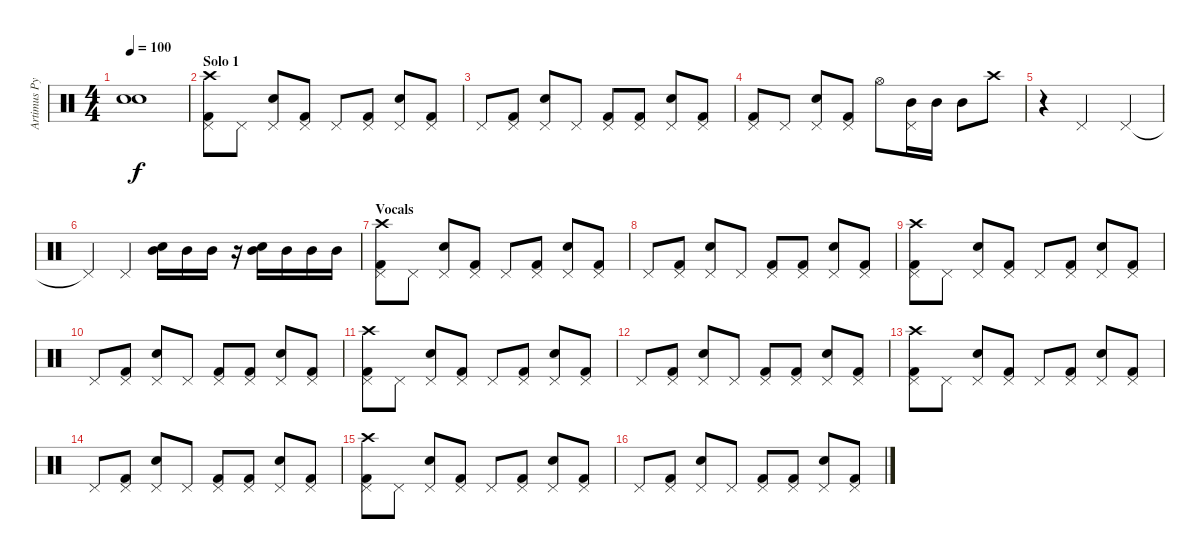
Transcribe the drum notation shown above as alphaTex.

\track ("Artimus Pyle " "Artimus Py") {instrument percussion}
\staff {score}
\articulation defaults
\ts (4 4)
\tempo 100
\clef neutral
\ks c
("Snare (hit)"{t} "Snare (hit)"{t}).1{dy f} |
\section ("" "Solo 1")
("Crash high (hit)" "Pedal Hi-Hat (hit)" "Kick (hit) 2").8 "Pedal Hi-Hat (hit)".8 ("Pedal Hi-Hat (hit)" "Electric Snare (hit)").8 ("Pedal Hi-Hat (hit)" "Kick (hit) 2").8 "Pedal Hi-Hat (hit)".8 ("Pedal Hi-Hat (hit)" "Kick (hit) 2").8 ("Pedal Hi-Hat (hit)" "Electric Snare (hit)").8 ("Pedal Hi-Hat (hit)" "Kick (hit) 2").8 |
"Pedal Hi-Hat (hit)".8 ("Pedal Hi-Hat (hit)" "Kick (hit) 2").8 ("Pedal Hi-Hat (hit)" "Electric Snare (hit)").8 "Pedal Hi-Hat (hit)".8 ("Pedal Hi-Hat (hit)" "Kick (hit) 2").8 ("Pedal Hi-Hat (hit)" "Kick (hit) 2").8 ("Pedal Hi-Hat (hit)" "Electric Snare (hit)").8 ("Pedal Hi-Hat (hit)" "Kick (hit) 2").8 |
("Pedal Hi-Hat (hit)" "Kick (hit) 2").8 "Pedal Hi-Hat (hit)".8 ("Pedal Hi-Hat (hit)" "Electric Snare (hit)").8 ("Pedal Hi-Hat (hit)" "Kick (hit) 2").8 "Hi-Hat (open)".8 ("Pedal Hi-Hat (hit)" "Mid Tom (hit)").16 "Mid Tom (hit)".16 "Mid Tom (hit)".8 "Crash high (hit)".8 |
r.4 "Pedal Hi-Hat (hit)".2 "Pedal Hi-Hat (hit)".4 |
"Pedal Hi-Hat (hit)"{t}.4 "Pedal Hi-Hat (hit)".4 ("Electric Snare (hit)" "Mid Tom (hit)").16 "Mid Tom (hit)".16 "Mid Tom (hit)".16 r.16 ("Electric Snare (hit)" "Mid Tom (hit)").16 "Mid Tom (hit)".16 "Mid Tom (hit)".16 "Mid Tom (hit)".16 |
\section ("" "Vocals")
("Crash high (hit)" "Pedal Hi-Hat (hit)" "Kick (hit) 2").8 "Pedal Hi-Hat (hit)".8 ("Pedal Hi-Hat (hit)" "Electric Snare (hit)").8 ("Pedal Hi-Hat (hit)" "Kick (hit) 2").8 "Pedal Hi-Hat (hit)".8 ("Pedal Hi-Hat (hit)" "Kick (hit) 2").8 ("Pedal Hi-Hat (hit)" "Electric Snare (hit)").8 ("Pedal Hi-Hat (hit)" "Kick (hit) 2").8 |
"Pedal Hi-Hat (hit)".8 ("Pedal Hi-Hat (hit)" "Kick (hit) 2").8 ("Pedal Hi-Hat (hit)" "Electric Snare (hit)").8 "Pedal Hi-Hat (hit)".8 ("Pedal Hi-Hat (hit)" "Kick (hit) 2").8 ("Pedal Hi-Hat (hit)" "Kick (hit) 2").8 ("Pedal Hi-Hat (hit)" "Electric Snare (hit)").8 ("Pedal Hi-Hat (hit)" "Kick (hit) 2").8 |
("Crash high (hit)" "Pedal Hi-Hat (hit)" "Kick (hit) 2").8 "Pedal Hi-Hat (hit)".8 ("Pedal Hi-Hat (hit)" "Electric Snare (hit)").8 ("Pedal Hi-Hat (hit)" "Kick (hit) 2").8 "Pedal Hi-Hat (hit)".8 ("Pedal Hi-Hat (hit)" "Kick (hit) 2").8 ("Pedal Hi-Hat (hit)" "Electric Snare (hit)").8 ("Pedal Hi-Hat (hit)" "Kick (hit) 2").8 |
"Pedal Hi-Hat (hit)".8 ("Pedal Hi-Hat (hit)" "Kick (hit) 2").8 ("Pedal Hi-Hat (hit)" "Electric Snare (hit)").8 "Pedal Hi-Hat (hit)".8 ("Pedal Hi-Hat (hit)" "Kick (hit) 2").8 ("Pedal Hi-Hat (hit)" "Kick (hit) 2").8 ("Pedal Hi-Hat (hit)" "Electric Snare (hit)").8 ("Pedal Hi-Hat (hit)" "Kick (hit) 2").8 |
("Crash high (hit)" "Pedal Hi-Hat (hit)" "Kick (hit) 2").8 "Pedal Hi-Hat (hit)".8 ("Pedal Hi-Hat (hit)" "Electric Snare (hit)").8 ("Pedal Hi-Hat (hit)" "Kick (hit) 2").8 "Pedal Hi-Hat (hit)".8 ("Pedal Hi-Hat (hit)" "Kick (hit) 2").8 ("Pedal Hi-Hat (hit)" "Electric Snare (hit)").8 ("Pedal Hi-Hat (hit)" "Kick (hit) 2").8 |
"Pedal Hi-Hat (hit)".8 ("Pedal Hi-Hat (hit)" "Kick (hit) 2").8 ("Pedal Hi-Hat (hit)" "Electric Snare (hit)").8 "Pedal Hi-Hat (hit)".8 ("Pedal Hi-Hat (hit)" "Kick (hit) 2").8 ("Pedal Hi-Hat (hit)" "Kick (hit) 2").8 ("Pedal Hi-Hat (hit)" "Electric Snare (hit)").8 ("Pedal Hi-Hat (hit)" "Kick (hit) 2").8 |
("Crash high (hit)" "Pedal Hi-Hat (hit)" "Kick (hit) 2").8 "Pedal Hi-Hat (hit)".8 ("Pedal Hi-Hat (hit)" "Electric Snare (hit)").8 ("Pedal Hi-Hat (hit)" "Kick (hit) 2").8 "Pedal Hi-Hat (hit)".8 ("Pedal Hi-Hat (hit)" "Kick (hit) 2").8 ("Pedal Hi-Hat (hit)" "Electric Snare (hit)").8 ("Pedal Hi-Hat (hit)" "Kick (hit) 2").8 |
"Pedal Hi-Hat (hit)".8 ("Pedal Hi-Hat (hit)" "Kick (hit) 2").8 ("Pedal Hi-Hat (hit)" "Electric Snare (hit)").8 "Pedal Hi-Hat (hit)".8 ("Pedal Hi-Hat (hit)" "Kick (hit) 2").8 ("Pedal Hi-Hat (hit)" "Kick (hit) 2").8 ("Pedal Hi-Hat (hit)" "Electric Snare (hit)").8 ("Pedal Hi-Hat (hit)" "Kick (hit) 2").8 |
("Crash high (hit)" "Pedal Hi-Hat (hit)" "Kick (hit) 2").8 "Pedal Hi-Hat (hit)".8 ("Pedal Hi-Hat (hit)" "Electric Snare (hit)").8 ("Pedal Hi-Hat (hit)" "Kick (hit) 2").8 "Pedal Hi-Hat (hit)".8 ("Pedal Hi-Hat (hit)" "Kick (hit) 2").8 ("Pedal Hi-Hat (hit)" "Electric Snare (hit)").8 ("Pedal Hi-Hat (hit)" "Kick (hit) 2").8 |
"Pedal Hi-Hat (hit)".8 ("Pedal Hi-Hat (hit)" "Kick (hit) 2").8 ("Pedal Hi-Hat (hit)" "Electric Snare (hit)").8 "Pedal Hi-Hat (hit)".8 ("Pedal Hi-Hat (hit)" "Kick (hit) 2").8 ("Pedal Hi-Hat (hit)" "Kick (hit) 2").8 ("Pedal Hi-Hat (hit)" "Electric Snare (hit)").8 ("Pedal Hi-Hat (hit)" "Kick (hit) 2").8
